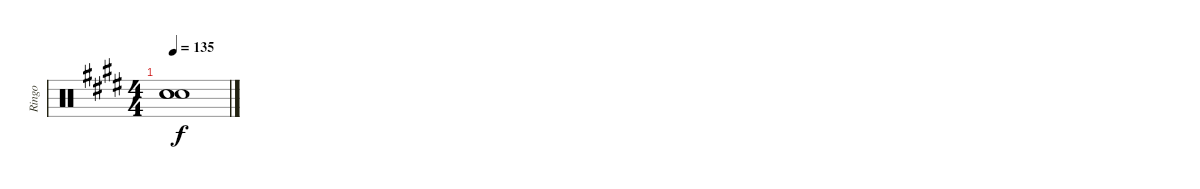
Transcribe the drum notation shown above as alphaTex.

\track ("Ringo" "Ringo") {instrument percussion}
\staff {score}
\articulation defaults
\ts (4 4)
\tempo 135
\clef neutral
\ks e
("Snare (hit)"{t} "Snare (hit)"{t} "Snare (hit)"{t}).1{dy f}
